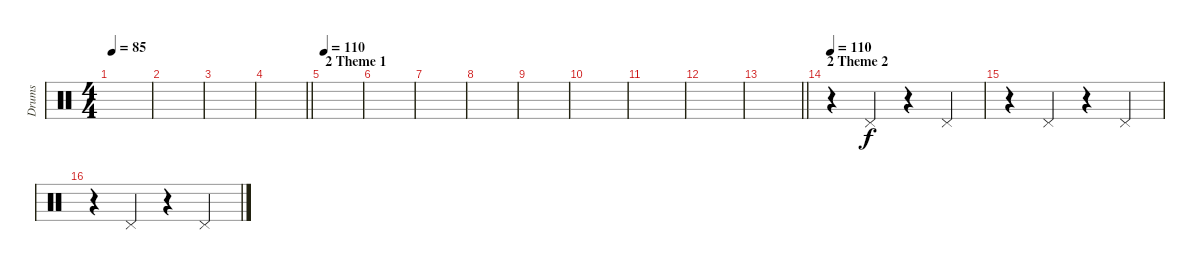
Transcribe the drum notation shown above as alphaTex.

\track ("Drums" "Drums") {instrument percussion}
\staff {score}
\articulation defaults
\ts (4 4)
\tempo 85
\clef neutral
\ks c
|
|
|
\barLineRight lightlight
|
\section ("" "2 Theme 1")
\tempo 110
|
|
|
|
|
|
|
|
\barLineRight lightlight
|
\section ("" "2 Theme 2")
\tempo 110
r.4 "Pedal Hi-Hat (hit)".4 r.4 "Pedal Hi-Hat (hit)".4 |
r.4 "Pedal Hi-Hat (hit)".4 r.4 "Pedal Hi-Hat (hit)".4 |
r.4 "Pedal Hi-Hat (hit)".4 r.4 "Pedal Hi-Hat (hit)".4
